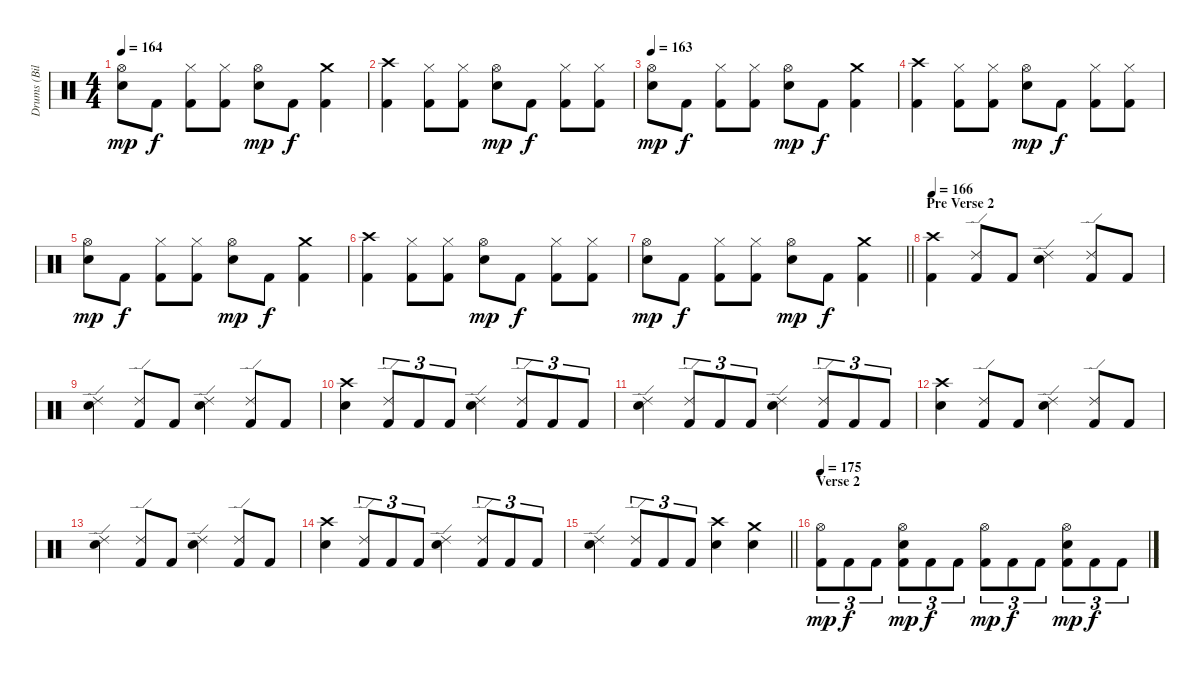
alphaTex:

\track ("Drums (Bill Andrews)" "Drums (Bil") {instrument percussion}
\staff
\articulation defaults
\ts (4 4)
\tempo 164
\clef neutral
\ks c
("Hi-Hat (open)" "Electric Snare (hit)").8{dy mp} "Kick (hit) 2".8{dy f} ("Hi-Hat (closed)" "Kick (hit) 2").8 ("Hi-Hat (closed)" "Kick (hit) 2").8 ("Hi-Hat (open)" "Electric Snare (hit)").8{dy mp} "Kick (hit) 2".8{dy f} ("Crash medium (hit)" "Kick (hit) 2").4 |
("Crash high (hit)" "Kick (hit) 2").4 ("Hi-Hat (closed)" "Kick (hit) 2").8 ("Hi-Hat (closed)" "Kick (hit) 2").8 ("Hi-Hat (open)" "Electric Snare (hit)").8{dy mp} "Kick (hit) 2".8{dy f} ("Hi-Hat (closed)" "Kick (hit) 2").8 ("Hi-Hat (closed)" "Kick (hit) 2").8 |
\tempo 163
("Hi-Hat (open)" "Electric Snare (hit)").8{dy mp} "Kick (hit) 2".8{dy f} ("Hi-Hat (closed)" "Kick (hit) 2").8 ("Hi-Hat (closed)" "Kick (hit) 2").8 ("Hi-Hat (open)" "Electric Snare (hit)").8{dy mp} "Kick (hit) 2".8{dy f} ("Crash medium (hit)" "Kick (hit) 2").4 |
("Crash high (hit)" "Kick (hit) 2").4 ("Hi-Hat (closed)" "Kick (hit) 2").8 ("Hi-Hat (closed)" "Kick (hit) 2").8 ("Hi-Hat (open)" "Electric Snare (hit)").8{dy mp} "Kick (hit) 2".8{dy f} ("Hi-Hat (closed)" "Kick (hit) 2").8 ("Hi-Hat (closed)" "Kick (hit) 2").8 |
("Hi-Hat (open)" "Electric Snare (hit)").8{dy mp} "Kick (hit) 2".8{dy f} ("Hi-Hat (closed)" "Kick (hit) 2").8 ("Hi-Hat (closed)" "Kick (hit) 2").8 ("Hi-Hat (open)" "Electric Snare (hit)").8{dy mp} "Kick (hit) 2".8{dy f} ("Crash medium (hit)" "Kick (hit) 2").4 |
("Crash high (hit)" "Kick (hit) 2").4 ("Hi-Hat (closed)" "Kick (hit) 2").8 ("Hi-Hat (closed)" "Kick (hit) 2").8 ("Hi-Hat (open)" "Electric Snare (hit)").8{dy mp} "Kick (hit) 2".8{dy f} ("Hi-Hat (closed)" "Kick (hit) 2").8 ("Hi-Hat (closed)" "Kick (hit) 2").8 |
\barLineRight lightlight
("Hi-Hat (open)" "Electric Snare (hit)").8{dy mp} "Kick (hit) 2".8{dy f} ("Hi-Hat (closed)" "Kick (hit) 2").8 ("Hi-Hat (closed)" "Kick (hit) 2").8 ("Hi-Hat (open)" "Electric Snare (hit)").8{dy mp} "Kick (hit) 2".8{dy f} ("Crash medium (hit)" "Kick (hit) 2").4 |
\section ("" "Pre Verse 2")
\tempo 166
("Crash high (hit)" "Kick (hit) 2").4 ("Ride (edge) 2" "Kick (hit) 2").8 "Kick (hit) 2".8 ("Ride (edge) 2" "Electric Snare (hit)").4 ("Ride (edge) 2" "Kick (hit) 2").8 "Kick (hit) 2".8 |
("Ride (edge) 2" "Electric Snare (hit)").4 ("Ride (edge) 2" "Kick (hit) 2").8 "Kick (hit) 2".8 ("Ride (edge) 2" "Electric Snare (hit)").4 ("Ride (edge) 2" "Kick (hit) 2").8 "Kick (hit) 2".8 |
("Crash high (hit)" "Electric Snare (hit)").4 ("Ride (edge) 2" "Kick (hit) 2").8{tu (3 2)} "Kick (hit) 2".8{tu (3 2)} "Kick (hit) 2".8{tu (3 2)} ("Ride (edge) 2" "Electric Snare (hit)").4 ("Ride (edge) 2" "Kick (hit) 2").8{tu (3 2)} "Kick (hit) 2".8{tu (3 2)} "Kick (hit) 2".8{tu (3 2)} |
("Ride (edge) 2" "Electric Snare (hit)").4 ("Ride (edge) 2" "Kick (hit) 2").8{tu (3 2)} "Kick (hit) 2".8{tu (3 2)} "Kick (hit) 2".8{tu (3 2)} ("Ride (edge) 2" "Electric Snare (hit)").4 ("Ride (edge) 2" "Kick (hit) 2").8{tu (3 2)} "Kick (hit) 2".8{tu (3 2)} "Kick (hit) 2".8{tu (3 2)} |
("Crash high (hit)" "Electric Snare (hit)").4 ("Ride (edge) 2" "Kick (hit) 2").8 "Kick (hit) 2".8 ("Ride (edge) 2" "Electric Snare (hit)").4 ("Ride (edge) 2" "Kick (hit) 2").8 "Kick (hit) 2".8 |
("Ride (edge) 2" "Electric Snare (hit)").4 ("Ride (edge) 2" "Kick (hit) 2").8 "Kick (hit) 2".8 ("Ride (edge) 2" "Electric Snare (hit)").4 ("Ride (edge) 2" "Kick (hit) 2").8 "Kick (hit) 2".8 |
("Crash high (hit)" "Electric Snare (hit)").4 ("Ride (edge) 2" "Kick (hit) 2").8{tu (3 2)} "Kick (hit) 2".8{tu (3 2)} "Kick (hit) 2".8{tu (3 2)} ("Ride (edge) 2" "Electric Snare (hit)").4 ("Ride (edge) 2" "Kick (hit) 2").8{tu (3 2)} "Kick (hit) 2".8{tu (3 2)} "Kick (hit) 2".8{tu (3 2)} |
\barLineRight lightlight
("Ride (edge) 2" "Electric Snare (hit)").4 ("Ride (edge) 2" "Kick (hit) 2").8{tu (3 2)} "Kick (hit) 2".8{tu (3 2)} "Kick (hit) 2".8{tu (3 2)} ("Crash high (hit)" "Electric Snare (hit)").4 ("Crash medium (hit)" "Electric Snare (hit)").4 |
\section ("" "Verse 2")
\tempo 175
("Hi-Hat (open)" "Kick (hit) 2").8{tu (3 2) dy mp} "Kick (hit) 2".8{tu (3 2) dy f} "Kick (hit) 2".8{tu (3 2)} ("Hi-Hat (open)" "Kick (hit) 2" "Electric Snare (hit)").8{tu (3 2) dy mp} "Kick (hit) 2".8{tu (3 2) dy f} "Kick (hit) 2".8{tu (3 2)} ("Hi-Hat (open)" "Kick (hit) 2").8{tu (3 2) dy mp} "Kick (hit) 2".8{tu (3 2) dy f} "Kick (hit) 2".8{tu (3 2)} ("Hi-Hat (open)" "Kick (hit) 2" "Electric Snare (hit)").8{tu (3 2) dy mp} "Kick (hit) 2".8{tu (3 2) dy f} "Kick (hit) 2".8{tu (3 2)}
